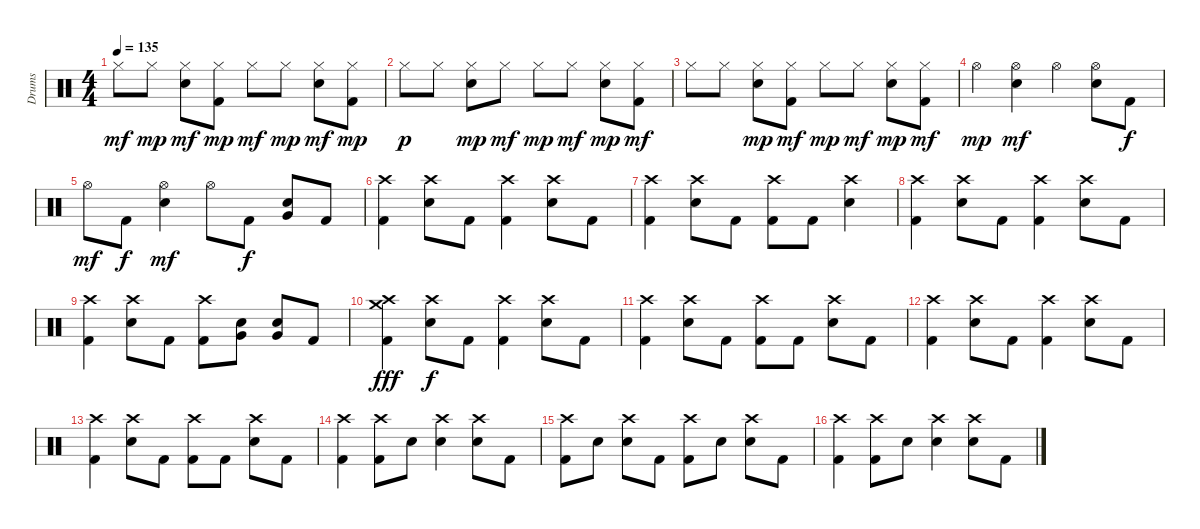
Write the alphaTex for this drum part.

\track ("Drums" "Drums") {instrument percussion}
\staff {score}
\articulation defaults
\ts (4 4)
\tempo 135
\clef neutral
\ks c "Hi-Hat (closed)".8{dy mf} "Hi-Hat (closed)".8{dy mp}
("Hi-Hat (closed)" "Electric Snare (hit)").8{dy mf} ("Hi-Hat (closed)" "Kick (hit) 2").8{dy mp} "Hi-Hat (closed)".8{dy mf} "Hi-Hat (closed)".8{dy mp} ("Hi-Hat (closed)" "Electric Snare (hit)").8{dy mf} ("Hi-Hat (closed)" "Kick (hit) 2").8{dy mp} |
"Hi-Hat (closed)".8{dy p} "Hi-Hat (closed)".8 ("Hi-Hat (closed)" "Electric Snare (hit)").8{dy mp} "Hi-Hat (closed)".8{dy mf} "Hi-Hat (closed)".8{dy mp} "Hi-Hat (closed)".8{dy mf} ("Hi-Hat (closed)" "Electric Snare (hit)").8{dy mp} ("Hi-Hat (closed)" "Kick (hit) 2").8{dy mf} |
"Hi-Hat (closed)".8 "Hi-Hat (closed)".8 ("Hi-Hat (closed)" "Electric Snare (hit)").8{dy mp} ("Hi-Hat (closed)" "Kick (hit) 2").8{dy mf} "Hi-Hat (closed)".8{dy mp} "Hi-Hat (closed)".8{dy mf} ("Hi-Hat (closed)" "Electric Snare (hit)").8{dy mp} ("Hi-Hat (closed)" "Kick (hit) 2").8{dy mf} |
"Hi-Hat (open)".4{dy mp} ("Hi-Hat (open)" "Electric Snare (hit)").4{dy mf} "Hi-Hat (open)".4 ("Hi-Hat (open)" "Electric Snare (hit)").8 "Kick (hit) 2".8{dy f} |
"Hi-Hat (open)".8{dy mf} "Kick (hit) 2".8{dy f} ("Hi-Hat (open)" "Electric Snare (hit)").4{dy mf} "Hi-Hat (open)".8 "Kick (hit) 2".8{dy f} ("Very Low Tom (hit)" "Electric Snare (hit)").8 "Kick (hit) 2".8 |
("Crash high (hit)" "Kick (hit) 2").4 ("Crash high (hit)" "Electric Snare (hit)").8 "Kick (hit) 2".8 ("Crash high (hit)" "Kick (hit) 2").4 ("Crash high (hit)" "Electric Snare (hit)").8 "Kick (hit) 2".8 |
("Crash high (hit)" "Kick (hit) 2").4 ("Crash high (hit)" "Electric Snare (hit)").8 "Kick (hit) 2".8 ("Crash high (hit)" "Kick (hit) 2").8 "Kick (hit) 2".8 ("Crash high (hit)" "Electric Snare (hit)").4 |
("Crash high (hit)" "Kick (hit) 2").4 ("Crash high (hit)" "Electric Snare (hit)").8 "Kick (hit) 2".8 ("Crash high (hit)" "Kick (hit) 2").4 ("Crash high (hit)" "Electric Snare (hit)").8 "Kick (hit) 2".8 |
("Crash high (hit)" "Kick (hit) 2").4 ("Crash high (hit)" "Electric Snare (hit)").8 "Kick (hit) 2".8 ("Crash high (hit)" "Kick (hit) 2").8 ("Very Low Tom (hit)" "Electric Snare (hit)").8 ("Very Low Tom (hit)" "Electric Snare (hit)").8 "Kick (hit) 2".8 |
("Crash medium (hit)" "Crash high (hit)" "Kick (hit) 2").4{dy fff} ("Crash high (hit)" "Electric Snare (hit)").8{dy f} "Kick (hit) 2".8 ("Crash high (hit)" "Kick (hit) 2").4 ("Crash high (hit)" "Electric Snare (hit)").8 "Kick (hit) 2".8 |
("Crash high (hit)" "Kick (hit) 2").4 ("Crash high (hit)" "Electric Snare (hit)").8 "Kick (hit) 2".8 ("Crash high (hit)" "Kick (hit) 2").8 "Kick (hit) 2".8 ("Crash high (hit)" "Electric Snare (hit)").8 "Kick (hit) 2".8 |
("Crash high (hit)" "Kick (hit) 2").4 ("Crash high (hit)" "Electric Snare (hit)").8 "Kick (hit) 2".8 ("Crash high (hit)" "Kick (hit) 2").4 ("Crash high (hit)" "Electric Snare (hit)").8 "Kick (hit) 2".8 |
("Crash high (hit)" "Kick (hit) 2").4 ("Crash high (hit)" "Electric Snare (hit)").8 "Kick (hit) 2".8 ("Crash high (hit)" "Kick (hit) 2").8 "Kick (hit) 2".8 ("Crash high (hit)" "Electric Snare (hit)").8 "Kick (hit) 2".8 |
("Crash high (hit)" "Kick (hit) 2").4 ("Crash high (hit)" "Kick (hit) 2").8 "Electric Snare (hit)".8 ("Crash high (hit)" "Electric Snare (hit)").4 ("Crash high (hit)" "Electric Snare (hit)").8 "Kick (hit) 2".8 |
("Crash high (hit)" "Kick (hit) 2").8 "Electric Snare (hit)".8 ("Crash high (hit)" "Electric Snare (hit)").8 "Kick (hit) 2".8 ("Crash high (hit)" "Kick (hit) 2").8 "Electric Snare (hit)".8 ("Crash high (hit)" "Electric Snare (hit)").8 "Kick (hit) 2".8 |
("Crash high (hit)" "Kick (hit) 2").4 ("Crash high (hit)" "Kick (hit) 2").8 "Electric Snare (hit)".8 ("Crash high (hit)" "Electric Snare (hit)").4 ("Crash high (hit)" "Electric Snare (hit)").8 "Kick (hit) 2".8
